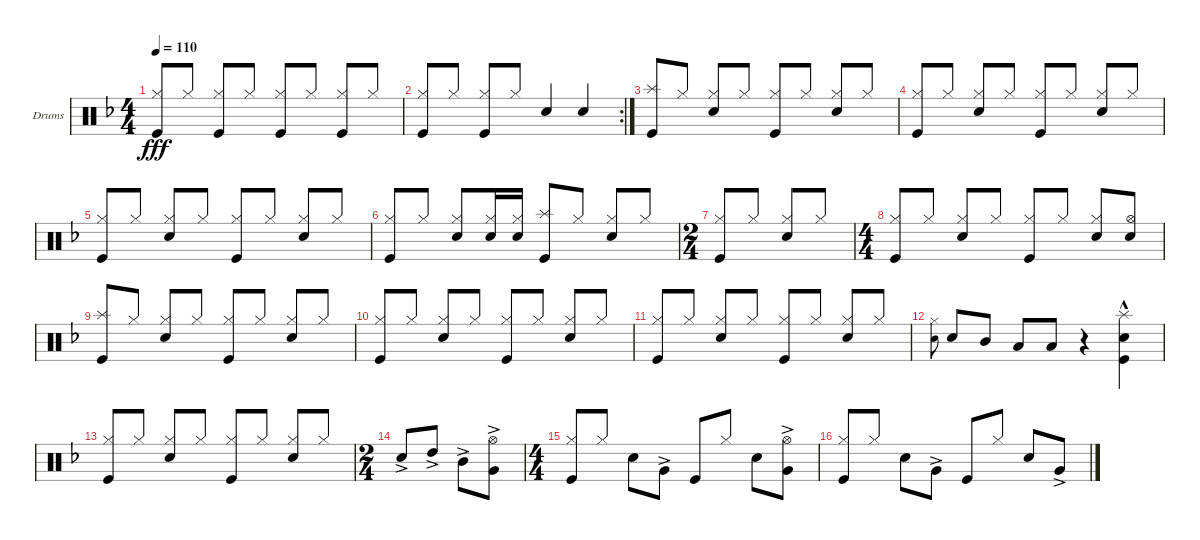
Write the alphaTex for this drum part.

\defaultSystemsLayout 4
\bracketExtendMode groupsimilarinstruments
\firstSystemTrackNameOrientation horizontal
\otherSystemsTrackNameOrientation horizontal
\track ("Drumkit" "Drums") {instrument percussion}
\staff {score}
\articulation defaults
\ts (4 4)
\tempo 110
\clef neutral
\ks f
("Hi-Hat (closed)" "Kick (hit)").8{dy fff beam invert} "Hi-Hat (closed)".8 ("Hi-Hat (closed)" "Kick (hit)").8{beam invert} "Hi-Hat (closed)".8 ("Hi-Hat (closed)" "Kick (hit)").8{beam invert} "Hi-Hat (closed)".8 ("Hi-Hat (closed)" "Kick (hit)").8{beam invert} "Hi-Hat (closed)".8 |
\rc 2
("Hi-Hat (closed)" "Kick (hit)").8{beam invert} "Hi-Hat (closed)".8 ("Hi-Hat (closed)" "Kick (hit)").8{beam invert} "Hi-Hat (closed)".8 "Snare (hit) 2".4{beam invert} "Snare (hit) 2".4{beam invert} |
("Kick (hit)" "Splash (hit)").8 "Hi-Hat (closed)".8 ("Hi-Hat (closed)" "Snare (hit) 2").8{beam invert} "Hi-Hat (closed)".8 ("Hi-Hat (closed)" "Kick (hit)").8{beam invert} "Hi-Hat (closed)".8 ("Hi-Hat (closed)" "Snare (hit) 2").8{beam invert} "Hi-Hat (closed)".8 |
("Hi-Hat (closed)" "Kick (hit)").8{beam invert} "Hi-Hat (closed)".8 ("Hi-Hat (closed)" "Snare (hit) 2").8{beam invert} "Hi-Hat (closed)".8 ("Hi-Hat (closed)" "Kick (hit)").8{beam invert} "Hi-Hat (closed)".8 ("Hi-Hat (closed)" "Snare (hit) 2").8{beam invert} "Hi-Hat (closed)".8 |
("Hi-Hat (closed)" "Kick (hit)").8{beam invert} "Hi-Hat (closed)".8 ("Hi-Hat (closed)" "Snare (hit) 2").8{beam invert} "Hi-Hat (closed)".8 ("Hi-Hat (closed)" "Kick (hit)").8{beam invert} "Hi-Hat (closed)".8 ("Hi-Hat (closed)" "Snare (hit) 2").8{beam invert} "Hi-Hat (closed)".8 |
("Hi-Hat (closed)" "Kick (hit)").8{beam invert} "Hi-Hat (closed)".8 ("Hi-Hat (closed)" "Snare (hit) 2").8{beam invert} ("Hi-Hat (closed)" "Snare (hit) 2").16 ("Hi-Hat (closed)" "Snare (hit) 2").16 ("Kick (hit)" "Splash (hit)").8 "Hi-Hat (closed)".8 ("Hi-Hat (closed)" "Snare (hit) 2").8{beam invert} "Hi-Hat (closed)".8 |
\ts (2 4)
("Hi-Hat (closed)" "Kick (hit)").8{beam invert} "Hi-Hat (closed)".8 ("Hi-Hat (closed)" "Snare (hit) 2").8{beam invert} "Hi-Hat (closed)".8 |
\ts (4 4)
("Hi-Hat (closed)" "Kick (hit)").8{beam invert} "Hi-Hat (closed)".8 ("Hi-Hat (closed)" "Snare (hit) 2").8{beam invert} "Hi-Hat (closed)".8 ("Hi-Hat (closed)" "Kick (hit)").8{beam invert} "Hi-Hat (closed)".8 ("Hi-Hat (closed)" "Snare (hit) 2").8{beam invert} ("Hi-Hat (open)" "Snare (hit) 2").8 |
("Kick (hit)" "Splash (hit)").8 "Hi-Hat (closed)".8 ("Hi-Hat (closed)" "Snare (hit) 2").8{beam invert} "Hi-Hat (closed)".8 ("Hi-Hat (closed)" "Kick (hit)").8{beam invert} "Hi-Hat (closed)".8 ("Hi-Hat (closed)" "Snare (hit) 2").8{beam invert} "Hi-Hat (closed)".8 |
("Hi-Hat (closed)" "Kick (hit)").8{beam invert} "Hi-Hat (closed)".8 ("Hi-Hat (closed)" "Snare (hit) 2").8{beam invert} "Hi-Hat (closed)".8 ("Hi-Hat (closed)" "Kick (hit)").8{beam invert} "Hi-Hat (closed)".8 ("Hi-Hat (closed)" "Snare (hit) 2").8{beam invert} "Hi-Hat (closed)".8 |
("Hi-Hat (closed)" "Kick (hit)").8{beam invert} "Hi-Hat (closed)".8 ("Hi-Hat (closed)" "Snare (hit) 2").8{beam invert} "Hi-Hat (closed)".8 ("Hi-Hat (closed)" "Kick (hit)").8{beam invert} "Hi-Hat (closed)".8 ("Hi-Hat (closed)" "Snare (hit) 2").8{beam invert} "Hi-Hat (closed)".8 |
("Hi-Hat (closed)" "Snare (hit) 2").8{gr onbeat beam invert} "Snare (hit) 2".8 "Mid Tom (hit)".8{beam invert} "Low Tom (hit)".8 "Low Tom (hit)".8 r.4 ("Snare (hit) 2" "Splash (hit)"{hac} "Kick (hit)").4 |
("Kick (hit)" "Hi-Hat (closed)").8{beam invert} "Hi-Hat (closed)".8 ("Hi-Hat (closed)" "Snare (hit) 2").8{beam invert} "Hi-Hat (closed)".8 ("Kick (hit)" "Hi-Hat (closed)").8{beam invert} "Hi-Hat (closed)".8 ("Hi-Hat (closed)" "Snare (hit) 2").8{beam invert} "Hi-Hat (closed)".8 |
\ts (2 4)
"Snare (hit) 2"{ac}.8{beam invert} "High Tom (hit)"{ac}.8 "Mid Tom (hit)"{ac}.8 ("Very Low Tom (hit)"{ac} "Hi-Hat (open)").8 |
\ts (4 4)
("Kick (hit)" "Hi-Hat (closed)").8{beam invert} "Hi-Hat (closed)".8 "Snare (hit) 2".8 "Very Low Tom (hit)"{ac}.8 "Kick (hit)".8{beam invert} "Hi-Hat (closed)".8 "Snare (hit) 2".8 ("Very Low Tom (hit)"{ac} "Hi-Hat (open)").8 |
("Kick (hit)" "Hi-Hat (closed)").8{beam invert} "Hi-Hat (closed)".8 "Snare (hit) 2".8 "Very Low Tom (hit)"{ac}.8 "Kick (hit)".8{beam invert} "Hi-Hat (closed)".8 "Snare (hit) 2".8 "Very Low Tom (hit)"{ac}.8
